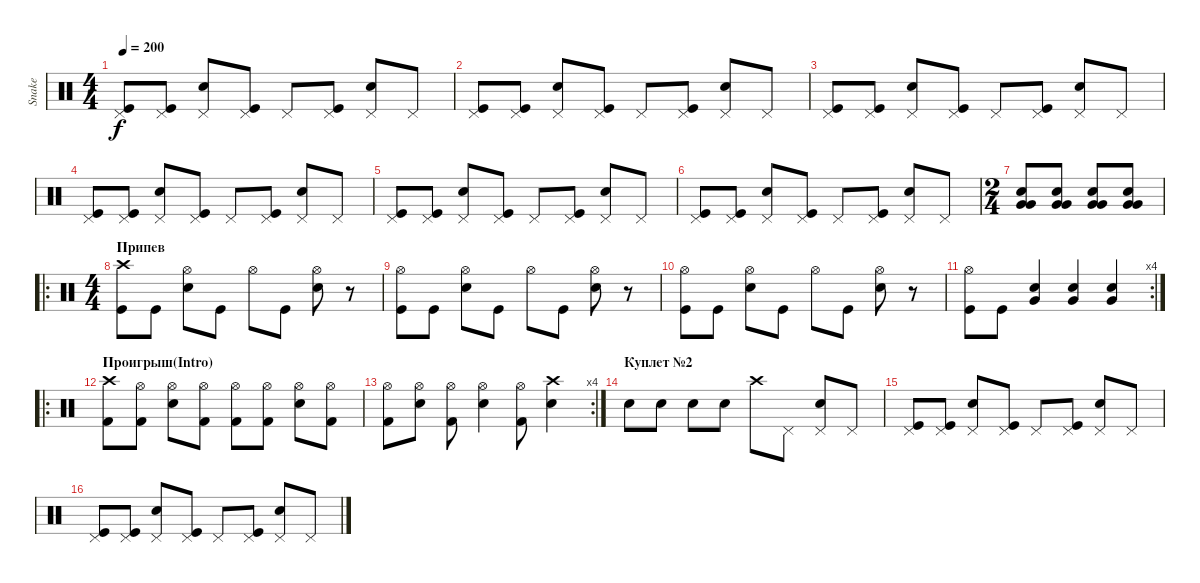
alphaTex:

\track ("Snake" "Snake") {instrument percussion}
\staff {score}
\articulation defaults
\ts (4 4)
\tempo 200
\clef neutral
\ks c
("Pedal Hi-Hat (hit)" "Kick (hit)").8{dy f} ("Pedal Hi-Hat (hit)" "Kick (hit)").8 ("Pedal Hi-Hat (hit)" "Electric Snare (hit)").8 ("Pedal Hi-Hat (hit)" "Kick (hit)").8 "Pedal Hi-Hat (hit)".8 ("Pedal Hi-Hat (hit)" "Kick (hit)").8 ("Pedal Hi-Hat (hit)" "Electric Snare (hit)").8 "Pedal Hi-Hat (hit)".8 |
("Pedal Hi-Hat (hit)" "Kick (hit)").8 ("Pedal Hi-Hat (hit)" "Kick (hit)").8 ("Pedal Hi-Hat (hit)" "Electric Snare (hit)").8 ("Pedal Hi-Hat (hit)" "Kick (hit)").8 "Pedal Hi-Hat (hit)".8 ("Pedal Hi-Hat (hit)" "Kick (hit)").8 ("Pedal Hi-Hat (hit)" "Electric Snare (hit)").8 "Pedal Hi-Hat (hit)".8 |
("Pedal Hi-Hat (hit)" "Kick (hit)").8 ("Pedal Hi-Hat (hit)" "Kick (hit)").8 ("Pedal Hi-Hat (hit)" "Electric Snare (hit)").8 ("Pedal Hi-Hat (hit)" "Kick (hit)").8 "Pedal Hi-Hat (hit)".8 ("Pedal Hi-Hat (hit)" "Kick (hit)").8 ("Pedal Hi-Hat (hit)" "Electric Snare (hit)").8 "Pedal Hi-Hat (hit)".8 |
("Pedal Hi-Hat (hit)" "Kick (hit)").8 ("Pedal Hi-Hat (hit)" "Kick (hit)").8 ("Pedal Hi-Hat (hit)" "Electric Snare (hit)").8 ("Pedal Hi-Hat (hit)" "Kick (hit)").8 "Pedal Hi-Hat (hit)".8 ("Pedal Hi-Hat (hit)" "Kick (hit)").8 ("Pedal Hi-Hat (hit)" "Electric Snare (hit)").8 "Pedal Hi-Hat (hit)".8 |
("Pedal Hi-Hat (hit)" "Kick (hit)").8 ("Pedal Hi-Hat (hit)" "Kick (hit)").8 ("Pedal Hi-Hat (hit)" "Electric Snare (hit)").8 ("Pedal Hi-Hat (hit)" "Kick (hit)").8 "Pedal Hi-Hat (hit)".8 ("Pedal Hi-Hat (hit)" "Kick (hit)").8 ("Pedal Hi-Hat (hit)" "Electric Snare (hit)").8 "Pedal Hi-Hat (hit)".8 |
("Pedal Hi-Hat (hit)" "Kick (hit)").8 ("Pedal Hi-Hat (hit)" "Kick (hit)").8 ("Pedal Hi-Hat (hit)" "Electric Snare (hit)").8 ("Pedal Hi-Hat (hit)" "Kick (hit)").8 "Pedal Hi-Hat (hit)".8 ("Pedal Hi-Hat (hit)" "Kick (hit)").8 ("Pedal Hi-Hat (hit)" "Electric Snare (hit)").8 "Pedal Hi-Hat (hit)".8 |
\ts (2 4)
("Electric Snare (hit)" "Very Low Tom (hit)" "Very Low Tom (hit)").8 ("Electric Snare (hit)" "Very Low Tom (hit)" "Very Low Tom (hit)").8 ("Electric Snare (hit)" "Very Low Tom (hit)" "Very Low Tom (hit)").8 ("Electric Snare (hit)" "Very Low Tom (hit)" "Very Low Tom (hit)").8 |
\ro
\ts (4 4)
\section ("" "Припев")
("Crash high (hit)" "Kick (hit)").8{volume 11} "Kick (hit)".8 ("Hi-Hat (open)" "Electric Snare (hit)").8 "Kick (hit)".8 "Hi-Hat (open)".8 "Kick (hit)".8 ("Hi-Hat (open)" "Electric Snare (hit)").8 r.8 |
("Hi-Hat (open)" "Kick (hit)").8 "Kick (hit)".8 ("Hi-Hat (open)" "Electric Snare (hit)").8 "Kick (hit)".8 "Hi-Hat (open)".8 "Kick (hit)".8 ("Hi-Hat (open)" "Electric Snare (hit)").8 r.8 |
("Hi-Hat (open)" "Kick (hit)").8 "Kick (hit)".8 ("Hi-Hat (open)" "Electric Snare (hit)").8 "Kick (hit)".8 "Hi-Hat (open)".8 "Kick (hit)".8 ("Hi-Hat (open)" "Electric Snare (hit)").8 r.8 |
\rc 4
("Hi-Hat (open)" "Kick (hit)").8 "Kick (hit)".8 ("Very Low Tom (hit)" "Electric Snare (hit)").4 ("Very Low Tom (hit)" "Electric Snare (hit)").4 ("Very Low Tom (hit)" "Electric Snare (hit)").4 |
\ro
\section ("" "Прoигрыш(Intro)")
("Crash high (hit)" "Kick (hit) 2").8 ("Hi-Hat (open)" "Kick (hit) 2").8 ("Hi-Hat (open)" "Electric Snare (hit)").8 ("Hi-Hat (open)" "Kick (hit) 2").8 ("Hi-Hat (open)" "Kick (hit) 2").8 ("Hi-Hat (open)" "Kick (hit) 2").8 ("Hi-Hat (open)" "Electric Snare (hit)").8 ("Hi-Hat (open)" "Kick (hit) 2").8 |
\rc 4
("Hi-Hat (open)" "Kick (hit) 2").8 ("Hi-Hat (open)" "Electric Snare (hit)").8 ("Hi-Hat (open)" "Kick (hit) 2").8 ("Hi-Hat (open)" "Electric Snare (hit)").4 ("Hi-Hat (open)" "Kick (hit) 2").8 ("Crash high (hit)" "Electric Snare (hit)").4 |
\section ("" "Куплет №2")
"Electric Snare (hit)".8 "Electric Snare (hit)".8 "Electric Snare (hit)".8 "Electric Snare (hit)".8 "Crash high (hit)".8 "Pedal Hi-Hat (hit)".8 ("Pedal Hi-Hat (hit)" "Electric Snare (hit)").8 "Pedal Hi-Hat (hit)".8 |
("Pedal Hi-Hat (hit)" "Kick (hit)").8 ("Pedal Hi-Hat (hit)" "Kick (hit)").8 ("Pedal Hi-Hat (hit)" "Electric Snare (hit)").8 ("Pedal Hi-Hat (hit)" "Kick (hit)").8 "Pedal Hi-Hat (hit)".8 ("Pedal Hi-Hat (hit)" "Kick (hit)").8 ("Pedal Hi-Hat (hit)" "Electric Snare (hit)").8 "Pedal Hi-Hat (hit)".8 |
("Pedal Hi-Hat (hit)" "Kick (hit)").8 ("Pedal Hi-Hat (hit)" "Kick (hit)").8 ("Pedal Hi-Hat (hit)" "Electric Snare (hit)").8 ("Pedal Hi-Hat (hit)" "Kick (hit)").8 "Pedal Hi-Hat (hit)".8 ("Pedal Hi-Hat (hit)" "Kick (hit)").8 ("Pedal Hi-Hat (hit)" "Electric Snare (hit)").8 "Pedal Hi-Hat (hit)".8
